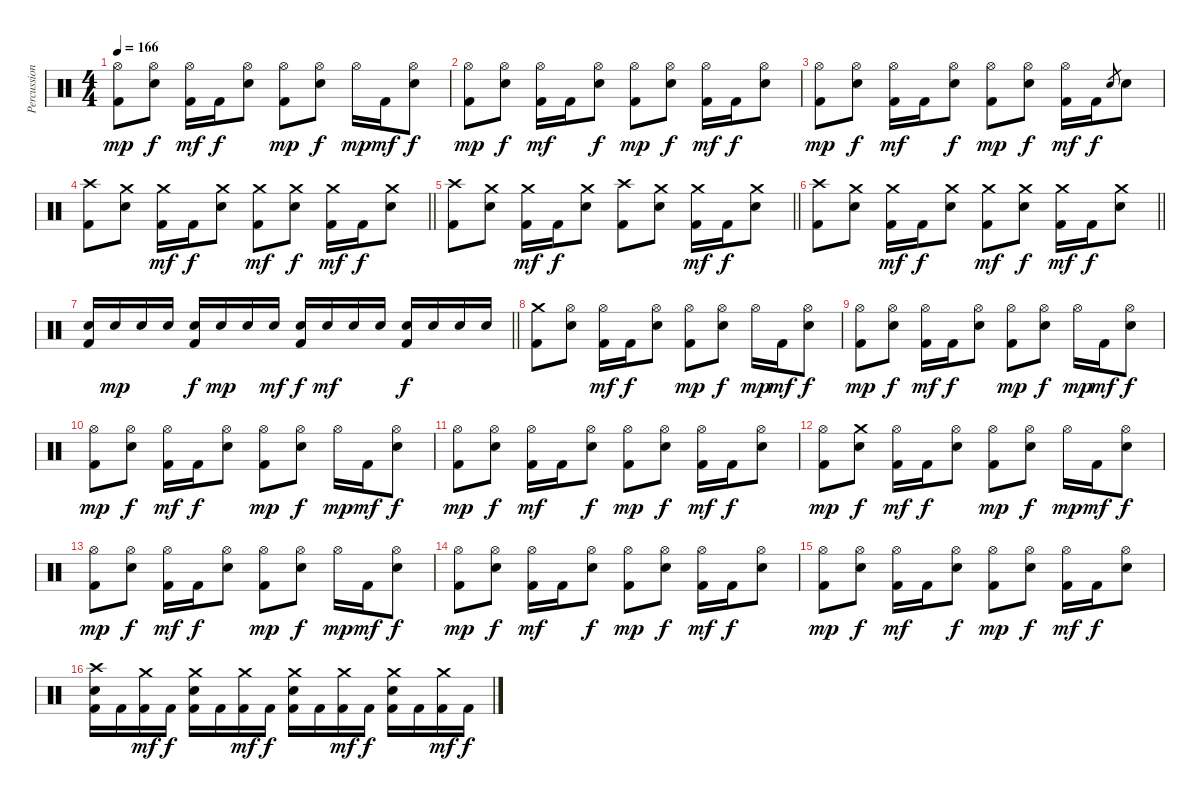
\track ("Percussion" "Percussion") {instrument percussion}
\staff {score}
\articulation defaults
\ts (4 4)
\tempo 166
\clef neutral
\ks c
("Hi-Hat (open)" "Kick (hit) 2").8{dy mp} ("Hi-Hat (open)" "Electric Snare (hit)").8{dy f} ("Hi-Hat (open)" "Kick (hit) 2").16{dy mf} "Kick (hit) 2".16{dy f} ("Hi-Hat (open)" "Electric Snare (hit)").8 ("Hi-Hat (open)" "Kick (hit) 2").8{dy mp} ("Hi-Hat (open)" "Electric Snare (hit)").8{dy f} "Hi-Hat (open)".16{dy mp} "Kick (hit) 2".16{dy mf} ("Hi-Hat (open)" "Electric Snare (hit)").8{dy f} |
("Hi-Hat (open)" "Kick (hit) 2").8{dy mp} ("Hi-Hat (open)" "Electric Snare (hit)").8{dy f} ("Hi-Hat (open)" "Kick (hit) 2").16{dy mf} "Kick (hit) 2".16 ("Hi-Hat (open)" "Electric Snare (hit)").8{dy f} ("Hi-Hat (open)" "Kick (hit) 2").8{dy mp} ("Hi-Hat (open)" "Electric Snare (hit)").8{dy f} ("Hi-Hat (open)" "Kick (hit) 2").16{dy mf} "Kick (hit) 2".16{dy f} ("Hi-Hat (open)" "Electric Snare (hit)").8 |
("Hi-Hat (open)" "Kick (hit) 2").8{dy mp} ("Hi-Hat (open)" "Electric Snare (hit)").8{dy f} ("Hi-Hat (open)" "Kick (hit) 2").16{dy mf} "Kick (hit) 2".16 ("Hi-Hat (open)" "Electric Snare (hit)").8{dy f} ("Hi-Hat (open)" "Kick (hit) 2").8{dy mp} ("Hi-Hat (open)" "Electric Snare (hit)").8{dy f} ("Hi-Hat (open)" "Kick (hit) 2").16{dy mf} "Kick (hit) 2".16{dy f} "Electric Snare (hit)".8{gr} "Electric Snare (hit)".8 |
\barLineRight lightlight
("Crash high (hit)" "Kick (hit) 2").8 ("Crash medium (hit)" "Electric Snare (hit)").8 ("Crash medium (hit)" "Kick (hit) 2").16{dy mf} "Kick (hit) 2".16{dy f} ("Crash medium (hit)" "Electric Snare (hit)").8 ("Crash medium (hit)" "Kick (hit) 2").8{dy mf} ("Crash medium (hit)" "Electric Snare (hit)").8{dy f} ("Crash medium (hit)" "Kick (hit) 2").16{dy mf} "Kick (hit) 2".16{dy f} ("Crash medium (hit)" "Electric Snare (hit)").8 |
\barLineRight lightlight
("Crash high (hit)" "Kick (hit) 2").8 ("Crash medium (hit)" "Electric Snare (hit)").8 ("Crash medium (hit)" "Kick (hit) 2").16{dy mf} "Kick (hit) 2".16{dy f} ("Crash medium (hit)" "Electric Snare (hit)").8 ("Crash high (hit)" "Kick (hit) 2").8 ("Crash medium (hit)" "Electric Snare (hit)").8 ("Crash medium (hit)" "Kick (hit) 2").16{dy mf} "Kick (hit) 2".16{dy f} ("Crash medium (hit)" "Electric Snare (hit)").8 |
\barLineRight lightlight
("Crash high (hit)" "Kick (hit) 2").8 ("Crash medium (hit)" "Electric Snare (hit)").8 ("Crash medium (hit)" "Kick (hit) 2").16{dy mf} "Kick (hit) 2".16{dy f} ("Crash medium (hit)" "Electric Snare (hit)").8 ("Crash medium (hit)" "Kick (hit) 2").8{dy mf} ("Crash medium (hit)" "Electric Snare (hit)").8{dy f} ("Crash medium (hit)" "Kick (hit) 2").16{dy mf} "Kick (hit) 2".16{dy f} ("Crash medium (hit)" "Electric Snare (hit)").8 |
\barLineRight lightlight
("Electric Snare (hit)" "Kick (hit) 2").16 "Electric Snare (hit)".16{dy mp} "Electric Snare (hit)".16 "Electric Snare (hit)".16 ("Electric Snare (hit)" "Kick (hit) 2").16{dy f} "Electric Snare (hit)".16{dy mp} "Electric Snare (hit)".16 "Electric Snare (hit)".16{dy mf} ("Electric Snare (hit)" "Kick (hit) 2").16{dy f} "Electric Snare (hit)".16{dy mf} "Electric Snare (hit)".16 "Electric Snare (hit)".16 ("Electric Snare (hit)" "Kick (hit) 2").16{dy f} "Electric Snare (hit)".16 "Electric Snare (hit)".16 "Electric Snare (hit)".16 |
("Crash medium (hit)" "Kick (hit) 2").8 ("Hi-Hat (open)" "Electric Snare (hit)").8 ("Hi-Hat (open)" "Kick (hit) 2").16{dy mf} "Kick (hit) 2".16{dy f} ("Hi-Hat (open)" "Electric Snare (hit)").8 ("Hi-Hat (open)" "Kick (hit) 2").8{dy mp} ("Hi-Hat (open)" "Electric Snare (hit)").8{dy f} "Hi-Hat (open)".16{dy mp} "Kick (hit) 2".16{dy mf} ("Hi-Hat (open)" "Electric Snare (hit)").8{dy f} |
("Hi-Hat (open)" "Kick (hit) 2").8{dy mp} ("Hi-Hat (open)" "Electric Snare (hit)").8{dy f} ("Hi-Hat (open)" "Kick (hit) 2").16{dy mf} "Kick (hit) 2".16{dy f} ("Hi-Hat (open)" "Electric Snare (hit)").8 ("Hi-Hat (open)" "Kick (hit) 2").8{dy mp} ("Hi-Hat (open)" "Electric Snare (hit)").8{dy f} "Hi-Hat (open)".16{dy mp} "Kick (hit) 2".16{dy mf} ("Hi-Hat (open)" "Electric Snare (hit)").8{dy f} |
("Hi-Hat (open)" "Kick (hit) 2").8{dy mp} ("Hi-Hat (open)" "Electric Snare (hit)").8{dy f} ("Hi-Hat (open)" "Kick (hit) 2").16{dy mf} "Kick (hit) 2".16{dy f} ("Hi-Hat (open)" "Electric Snare (hit)").8 ("Hi-Hat (open)" "Kick (hit) 2").8{dy mp} ("Hi-Hat (open)" "Electric Snare (hit)").8{dy f} "Hi-Hat (open)".16{dy mp} "Kick (hit) 2".16{dy mf} ("Hi-Hat (open)" "Electric Snare (hit)").8{dy f} |
("Hi-Hat (open)" "Kick (hit) 2").8{dy mp} ("Hi-Hat (open)" "Electric Snare (hit)").8{dy f} ("Hi-Hat (open)" "Kick (hit) 2").16{dy mf} "Kick (hit) 2".16 ("Hi-Hat (open)" "Electric Snare (hit)").8{dy f} ("Hi-Hat (open)" "Kick (hit) 2").8{dy mp} ("Hi-Hat (open)" "Electric Snare (hit)").8{dy f} ("Hi-Hat (open)" "Kick (hit) 2").16{dy mf} "Kick (hit) 2".16{dy f} ("Hi-Hat (open)" "Electric Snare (hit)").8 |
("Hi-Hat (open)" "Kick (hit) 2").8{dy mp} ("Crash medium (hit)" "Electric Snare (hit)").8{dy f} ("Hi-Hat (open)" "Kick (hit) 2").16{dy mf} "Kick (hit) 2".16{dy f} ("Hi-Hat (open)" "Electric Snare (hit)").8 ("Hi-Hat (open)" "Kick (hit) 2").8{dy mp} ("Hi-Hat (open)" "Electric Snare (hit)").8{dy f} "Hi-Hat (open)".16{dy mp} "Kick (hit) 2".16{dy mf} ("Hi-Hat (open)" "Electric Snare (hit)").8{dy f} |
("Hi-Hat (open)" "Kick (hit) 2").8{dy mp} ("Hi-Hat (open)" "Electric Snare (hit)").8{dy f} ("Hi-Hat (open)" "Kick (hit) 2").16{dy mf} "Kick (hit) 2".16{dy f} ("Hi-Hat (open)" "Electric Snare (hit)").8 ("Hi-Hat (open)" "Kick (hit) 2").8{dy mp} ("Hi-Hat (open)" "Electric Snare (hit)").8{dy f} "Hi-Hat (open)".16{dy mp} "Kick (hit) 2".16{dy mf} ("Hi-Hat (open)" "Electric Snare (hit)").8{dy f} |
("Hi-Hat (open)" "Kick (hit) 2").8{dy mp} ("Hi-Hat (open)" "Electric Snare (hit)").8{dy f} ("Hi-Hat (open)" "Kick (hit) 2").16{dy mf} "Kick (hit) 2".16 ("Hi-Hat (open)" "Electric Snare (hit)").8{dy f} ("Hi-Hat (open)" "Kick (hit) 2").8{dy mp} ("Hi-Hat (open)" "Electric Snare (hit)").8{dy f} ("Hi-Hat (open)" "Kick (hit) 2").16{dy mf} "Kick (hit) 2".16{dy f} ("Hi-Hat (open)" "Electric Snare (hit)").8 |
("Hi-Hat (open)" "Kick (hit) 2").8{dy mp} ("Hi-Hat (open)" "Electric Snare (hit)").8{dy f} ("Hi-Hat (open)" "Kick (hit) 2").16{dy mf} "Kick (hit) 2".16 ("Hi-Hat (open)" "Electric Snare (hit)").8{dy f} ("Hi-Hat (open)" "Kick (hit) 2").8{dy mp} ("Hi-Hat (open)" "Electric Snare (hit)").8{dy f} ("Hi-Hat (open)" "Kick (hit) 2").16{dy mf} "Kick (hit) 2".16{dy f} ("Hi-Hat (open)" "Electric Snare (hit)").8 |
("Crash high (hit)" "Electric Snare (hit)" "Kick (hit) 2").16 "Kick (hit) 2".16 ("Crash medium (hit)" "Kick (hit) 2").16{dy mf} "Kick (hit) 2".16{dy f} ("Crash medium (hit)" "Electric Snare (hit)" "Kick (hit) 2").16 "Kick (hit) 2".16 ("Crash medium (hit)" "Kick (hit) 2").16{dy mf} "Kick (hit) 2".16{dy f} ("Crash medium (hit)" "Electric Snare (hit)" "Kick (hit) 2").16 "Kick (hit) 2".16 ("Crash medium (hit)" "Kick (hit) 2").16{dy mf} "Kick (hit) 2".16{dy f} ("Crash medium (hit)" "Electric Snare (hit)" "Kick (hit) 2").16 "Kick (hit) 2".16 ("Crash medium (hit)" "Kick (hit) 2").16{dy mf} "Kick (hit) 2".16{dy f}
